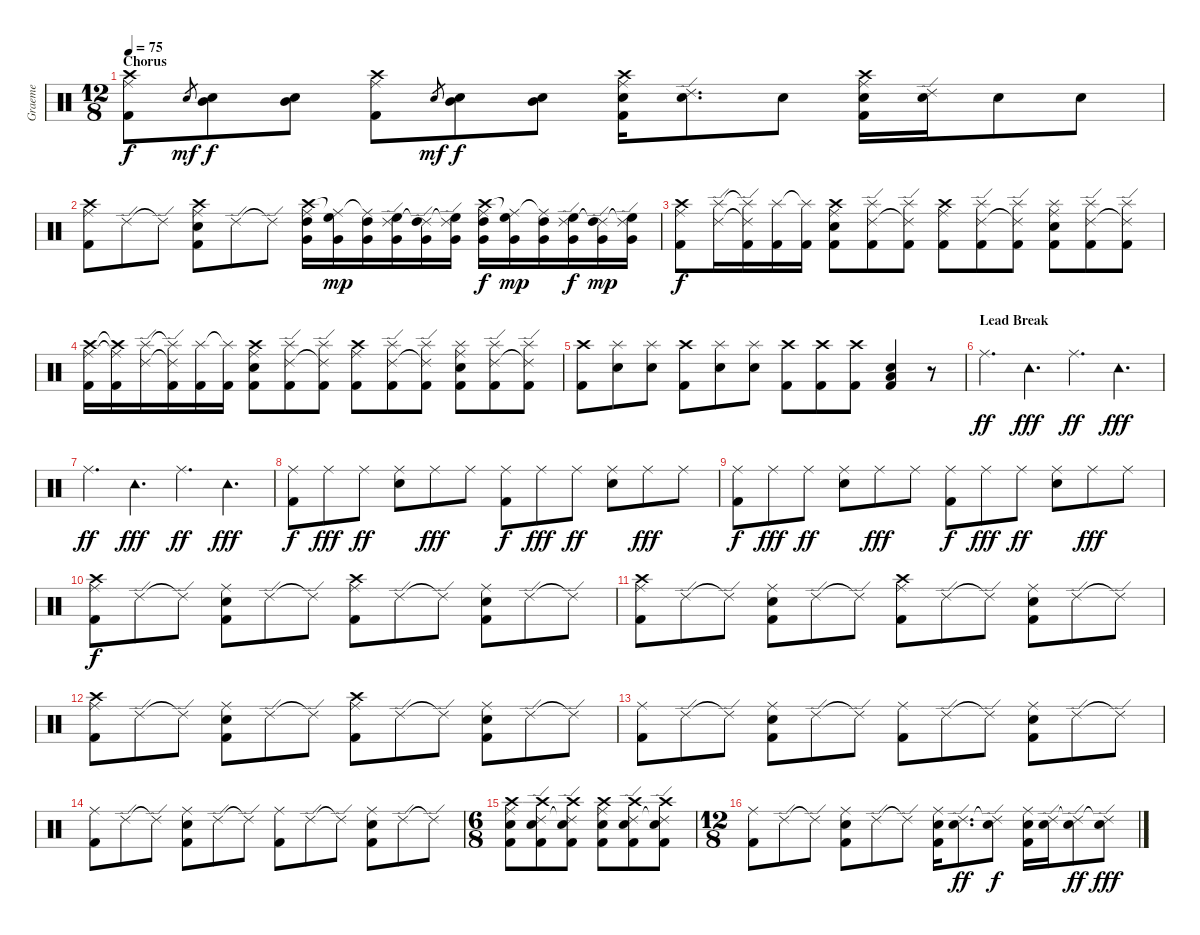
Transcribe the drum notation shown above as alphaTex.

\track ("Graeme" "Graeme") {instrument percussion}
\staff {score}
\articulation defaults
\ts (12 8)
\section ("" "Chorus")
\tempo 75
\clef neutral
\ks c
("Crash high (hit)" "Ride (middle)" "Kick (hit) 2").8{dy f} "Electric Snare (hit)".8{gr dy mf} ("Mid Tom (hit)" "Electric Snare (hit)").8{dy f} ("Mid Tom (hit)" "Electric Snare (hit)").8 ("Crash high (hit)" "Ride (middle)" "Kick (hit) 2").8 "Electric Snare (hit)".8{gr dy mf} ("Mid Tom (hit)" "Electric Snare (hit)").8{dy f} ("Mid Tom (hit)" "Electric Snare (hit)").8 ("Crash high (hit)" "Ride (middle)" "Electric Snare (hit)" "Kick (hit) 2").16 ("Ride (edge) 2" "Electric Snare (hit)").8{d} "Electric Snare (hit)".8 ("Crash high (hit)" "Ride (middle)" "Electric Snare (hit)" "Kick (hit) 2").16 ("Ride (edge) 2" "Electric Snare (hit)").16 "Electric Snare (hit)".8 "Electric Snare (hit)".8 |
("Crash high (hit)" "Ride (middle)" "Kick (hit) 2").8 "Ride (edge) 2".8 "Ride (edge) 2"{t}.8 ("Crash high (hit)" "Ride (middle)" "Electric Snare (hit)" "Kick (hit) 2").8 "Ride (edge) 2".8 "Ride (edge) 2"{t}.8 ("Crash high (hit)" "Ride (middle)" "High Tom (hit)" "Very Low Tom (hit)").16 ("Ride (middle)"{t} "High Floor Tom (hit)" "Very Low Tom (hit)").16{dy mp} ("Ride (middle)"{t} "High Tom (hit)" "Very Low Tom (hit)").16 ("Ride (edge) 2" "High Floor Tom (hit)" "Very Low Tom (hit)").16 ("Ride (edge) 2"{t} "High Tom (hit)" "Very Low Tom (hit)").16 ("Ride (edge) 2"{t} "High Floor Tom (hit)" "Very Low Tom (hit)").16 ("Crash high (hit)" "Ride (middle)" "High Tom (hit)" "Very Low Tom (hit)").16{dy f} ("Ride (middle)"{t} "High Floor Tom (hit)" "Very Low Tom (hit)").16{dy mp} ("Ride (middle)"{t} "High Tom (hit)" "Very Low Tom (hit)").16 ("Ride (edge) 2" "High Floor Tom (hit)" "Very Low Tom (hit)").16{dy f} ("Ride (edge) 2"{t} "High Tom (hit)" "Very Low Tom (hit)").16{dy mp} ("Ride (edge) 2"{t} "High Floor Tom (hit)" "Very Low Tom (hit)").16 |
("Crash high (hit)" "Ride (middle)" "Kick (hit) 2").8{dy f} ("Splash (hit)" "Ride (edge) 2").16 ("Splash (hit)"{t} "Ride (edge) 2"{t} "Kick (hit) 2").16 ("Splash (hit)" "Kick (hit) 2").16 ("Splash (hit)"{t} "Kick (hit) 2").16 ("Crash high (hit)" "Ride (middle)" "Electric Snare (hit)" "Kick (hit) 2").8 ("Splash (hit)" "Ride (edge) 2" "Kick (hit) 2").8 ("Splash (hit)" "Ride (edge) 2"{t} "Kick (hit) 2").8 ("Crash high (hit)" "Ride (middle)" "Kick (hit) 2").8 ("Splash (hit)" "Ride (edge) 2" "Kick (hit) 2").8 ("Splash (hit)" "Ride (edge) 2"{t} "Kick (hit) 2").8 ("Splash (hit)" "Ride (middle)" "Electric Snare (hit)" "Kick (hit) 2").8 ("Splash (hit)" "Ride (edge) 2" "Kick (hit) 2").8 ("Splash (hit)" "Ride (edge) 2"{t} "Kick (hit) 2").8 |
("Crash high (hit)" "Ride (middle)" "Kick (hit) 2").16 ("Crash high (hit)"{t} "Ride (middle)"{t} "Kick (hit) 2").16 ("Splash (hit)" "Ride (edge) 2").16 ("Splash (hit)"{t} "Ride (edge) 2"{t} "Kick (hit) 2").16 ("Splash (hit)" "Kick (hit) 2").16 ("Splash (hit)"{t} "Kick (hit) 2").16 ("Crash high (hit)" "Ride (middle)" "Electric Snare (hit)" "Kick (hit) 2").8 ("Splash (hit)" "Ride (edge) 2" "Kick (hit) 2").8 ("Splash (hit)" "Ride (edge) 2"{t} "Kick (hit) 2").8 ("Crash high (hit)" "Ride (middle)" "Kick (hit) 2").8 ("Splash (hit)" "Ride (edge) 2" "Kick (hit) 2").8 ("Splash (hit)" "Ride (edge) 2"{t} "Kick (hit) 2").8 ("Splash (hit)" "Ride (middle)" "Electric Snare (hit)" "Kick (hit) 2").8 ("Splash (hit)" "Ride (edge) 2" "Kick (hit) 2").8 ("Splash (hit)" "Ride (edge) 2"{t} "Kick (hit) 2").8 |
("Crash high (hit)" "Kick (hit) 2").8 ("Splash (hit)" "Electric Snare (hit)").8 ("Splash (hit)" "Electric Snare (hit)").8 ("Crash high (hit)" "Kick (hit) 2").8 ("Splash (hit)" "Electric Snare (hit)").8 ("Splash (hit)" "Electric Snare (hit)").8 ("Crash high (hit)" "Kick (hit) 2").8 ("Crash high (hit)" "Kick (hit) 2").8 ("Crash high (hit)" "Kick (hit) 2").8 ("Low Floor Tom (hit)" "Electric Snare (hit)" "Kick (hit) 2").4 r.8 |
\section ("" "Lead Break")
"Ride (middle)".4{d dy ff} "Tambourine (hit)".4{d dy fff} "Ride (middle)".4{d dy ff} "Tambourine (hit)".4{d dy fff} |
"Ride (middle)".4{d dy ff} "Tambourine (hit)".4{d dy fff} "Ride (middle)".4{d dy ff} "Tambourine (hit)".4{d dy fff} |
("Ride (middle)" "Kick (hit) 2").8{dy f} "Ride (middle)".8{dy fff} "Ride (middle)".8{dy ff} ("Ride (middle)" "Electric Snare (hit)").8 "Ride (middle)".8{dy fff} "Ride (middle)".8 ("Ride (middle)" "Kick (hit) 2").8{dy f} "Ride (middle)".8{dy fff} "Ride (middle)".8{dy ff} ("Ride (middle)" "Electric Snare (hit)").8 "Ride (middle)".8{dy fff} "Ride (middle)".8 |
("Ride (middle)" "Kick (hit) 2").8{dy f} "Ride (middle)".8{dy fff} "Ride (middle)".8{dy ff} ("Ride (middle)" "Electric Snare (hit)").8 "Ride (middle)".8{dy fff} "Ride (middle)".8 ("Ride (middle)" "Kick (hit) 2").8{dy f} "Ride (middle)".8{dy fff} "Ride (middle)".8{dy ff} ("Ride (middle)" "Electric Snare (hit)").8 "Ride (middle)".8{dy fff} "Ride (middle)".8 |
("Crash high (hit)" "Ride (middle)" "Kick (hit) 2").8{dy f} "Ride (edge) 2".8 "Ride (edge) 2"{t}.8 ("Ride (middle)" "Electric Snare (hit)" "Kick (hit) 2").8 "Ride (edge) 2".8 "Ride (edge) 2"{t}.8 ("Crash high (hit)" "Ride (middle)" "Kick (hit) 2").8 "Ride (edge) 2".8 "Ride (edge) 2"{t}.8 ("Ride (middle)" "Electric Snare (hit)" "Kick (hit) 2").8 "Ride (edge) 2".8 "Ride (edge) 2"{t}.8 |
("Crash high (hit)" "Ride (middle)" "Kick (hit) 2").8 "Ride (edge) 2".8 "Ride (edge) 2"{t}.8 ("Ride (middle)" "Electric Snare (hit)" "Kick (hit) 2").8 "Ride (edge) 2".8 "Ride (edge) 2"{t}.8 ("Crash high (hit)" "Ride (middle)" "Kick (hit) 2").8 "Ride (edge) 2".8 "Ride (edge) 2"{t}.8 ("Ride (middle)" "Electric Snare (hit)" "Kick (hit) 2").8 "Ride (edge) 2".8 "Ride (edge) 2"{t}.8 |
("Crash high (hit)" "Ride (middle)" "Kick (hit) 2").8 "Ride (edge) 2".8 "Ride (edge) 2"{t}.8 ("Ride (middle)" "Electric Snare (hit)" "Kick (hit) 2").8 "Ride (edge) 2".8 "Ride (edge) 2"{t}.8 ("Crash high (hit)" "Ride (middle)" "Kick (hit) 2").8 "Ride (edge) 2".8 "Ride (edge) 2"{t}.8 ("Ride (middle)" "Electric Snare (hit)" "Kick (hit) 2").8 "Ride (edge) 2".8 "Ride (edge) 2"{t}.8 |
("Ride (middle)" "Kick (hit) 2").8 "Ride (edge) 2".8 "Ride (edge) 2"{t}.8 ("Ride (middle)" "Electric Snare (hit)" "Kick (hit) 2").8 "Ride (edge) 2".8 "Ride (edge) 2"{t}.8 ("Ride (middle)" "Kick (hit) 2").8 "Ride (edge) 2".8 "Ride (edge) 2"{t}.8 ("Ride (middle)" "Electric Snare (hit)" "Kick (hit) 2").8 "Ride (edge) 2".8 "Ride (edge) 2"{t}.8 |
("Ride (middle)" "Kick (hit) 2").8 "Ride (edge) 2".8 "Ride (edge) 2"{t}.8 ("Ride (middle)" "Electric Snare (hit)" "Kick (hit) 2").8 "Ride (edge) 2".8 "Ride (edge) 2"{t}.8 ("Ride (middle)" "Kick (hit) 2").8 "Ride (edge) 2".8 "Ride (edge) 2"{t}.8 ("Ride (middle)" "Electric Snare (hit)" "Kick (hit) 2").8 "Ride (edge) 2".8 "Ride (edge) 2"{t}.8 |
\ts (6 8)
("Crash high (hit)" "Ride (middle)" "Electric Snare (hit)" "Kick (hit) 2").8 ("Crash high (hit)" "Ride (edge) 2" "Electric Snare (hit)" "Kick (hit) 2").8 ("Crash high (hit)" "Ride (edge) 2"{t} "Electric Snare (hit)" "Kick (hit) 2").8 ("Crash high (hit)" "Ride (middle)" "Electric Snare (hit)" "Kick (hit) 2").8 ("Crash high (hit)" "Ride (edge) 2" "Electric Snare (hit)" "Kick (hit) 2").8 ("Crash high (hit)" "Ride (edge) 2"{t} "Electric Snare (hit)" "Kick (hit) 2").8 |
\ts (12 8)
("Ride (middle)" "Kick (hit) 2").8 "Ride (edge) 2".8 "Ride (edge) 2"{t}.8 ("Ride (middle)" "Electric Snare (hit)" "Kick (hit) 2").8 "Ride (edge) 2".8 "Ride (edge) 2"{t}.8 ("Ride (middle)" "Electric Snare (hit)" "Kick (hit) 2").16 ("Ride (edge) 2" "Electric Snare (hit)").8{d dy ff} ("Ride (edge) 2"{t} "Electric Snare (hit)").8{dy f} ("Ride (middle)" "Electric Snare (hit)" "Kick (hit) 2").16 ("Ride (edge) 2" "Electric Snare (hit)").16 ("Ride (edge) 2"{t} "Electric Snare (hit)").8{dy ff} ("Ride (edge) 2"{t} "Electric Snare (hit)").8{dy fff}
